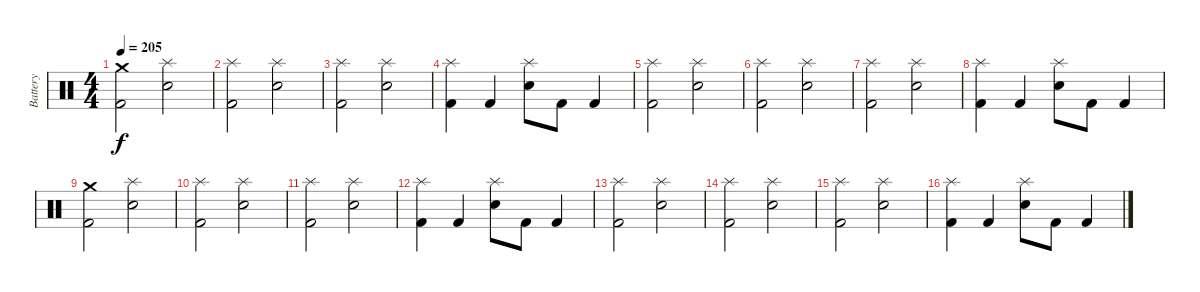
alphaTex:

\track ("Battery" "Battery") {instrument percussion}
\staff {score}
\articulation defaults
\ts (4 4)
\tempo 205
\clef neutral
\ks c
("Crash medium (hit)" "Kick (hit) 2").2{dy f} ("Splash (hit)" "Electric Snare (hit)").2 |
("Splash (hit)" "Kick (hit) 2").2 ("Splash (hit)" "Electric Snare (hit)").2 |
("Splash (hit)" "Kick (hit) 2").2 ("Splash (hit)" "Electric Snare (hit)").2 |
("Splash (hit)" "Kick (hit) 2").4 "Kick (hit) 2".4 ("Splash (hit)" "Electric Snare (hit)").8 "Kick (hit) 2".8 "Kick (hit) 2".4 |
("Splash (hit)" "Kick (hit) 2").2 ("Splash (hit)" "Electric Snare (hit)").2 |
("Splash (hit)" "Kick (hit) 2").2 ("Splash (hit)" "Electric Snare (hit)").2 |
("Splash (hit)" "Kick (hit) 2").2 ("Splash (hit)" "Electric Snare (hit)").2 |
("Splash (hit)" "Kick (hit) 2").4 "Kick (hit) 2".4 ("Splash (hit)" "Electric Snare (hit)").8 "Kick (hit) 2".8 "Kick (hit) 2".4 |
("Crash medium (hit)" "Kick (hit) 2").2 ("Splash (hit)" "Electric Snare (hit)").2 |
("Splash (hit)" "Kick (hit) 2").2 ("Splash (hit)" "Electric Snare (hit)").2 |
("Splash (hit)" "Kick (hit) 2").2 ("Splash (hit)" "Electric Snare (hit)").2 |
("Splash (hit)" "Kick (hit) 2").4 "Kick (hit) 2".4 ("Splash (hit)" "Electric Snare (hit)").8 "Kick (hit) 2".8 "Kick (hit) 2".4 |
("Splash (hit)" "Kick (hit) 2").2 ("Splash (hit)" "Electric Snare (hit)").2 |
("Splash (hit)" "Kick (hit) 2").2 ("Splash (hit)" "Electric Snare (hit)").2 |
("Splash (hit)" "Kick (hit) 2").2 ("Splash (hit)" "Electric Snare (hit)").2 |
("Splash (hit)" "Kick (hit) 2").4 "Kick (hit) 2".4 ("Splash (hit)" "Electric Snare (hit)").8 "Kick (hit) 2".8 "Kick (hit) 2".4
